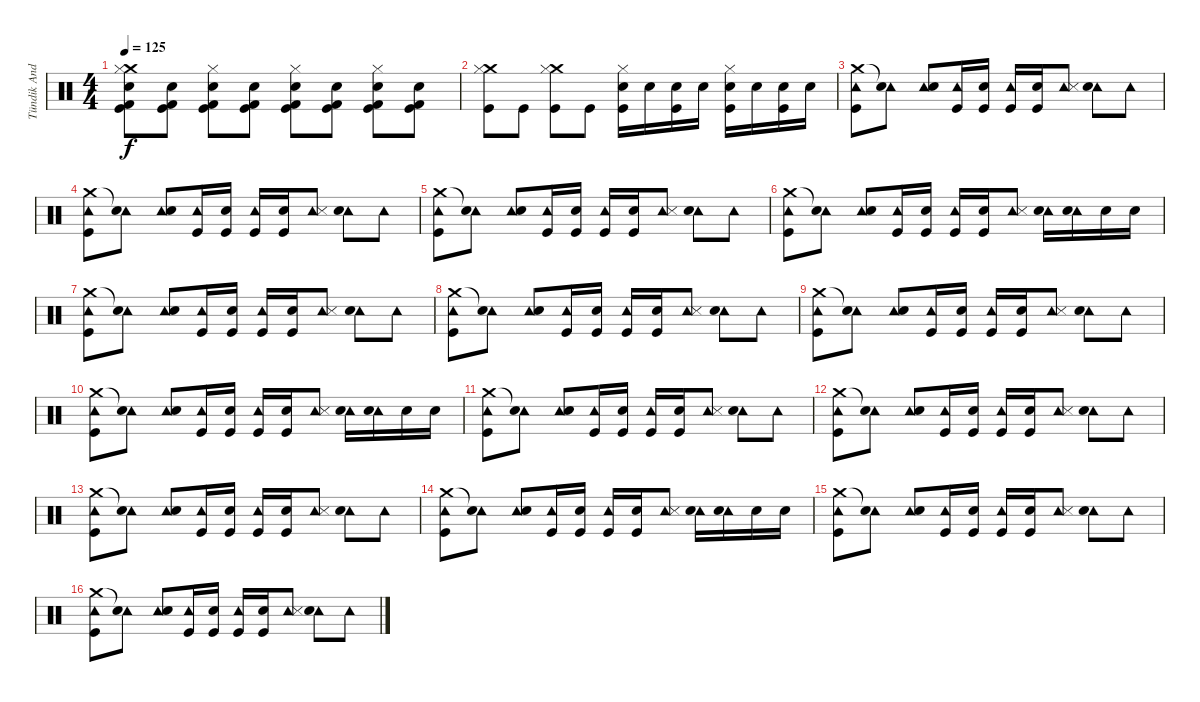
\track ("Tündik András - Dob" "Tündik And") {instrument percussion}
\staff {score}
\articulation defaults
\ts (4 4)
\tempo 125
\clef neutral
\ks c
("Crash medium (hit)" "Hi-Hat (closed)" "Snare (hit) 2" "Kick (hit) 2" "Kick (hit)").8{dy f} ("Snare (hit) 2" "Kick (hit) 2" "Kick (hit)").8 ("Hi-Hat (closed)" "Snare (hit) 2" "Kick (hit) 2" "Kick (hit)").8 ("Snare (hit) 2" "Kick (hit) 2" "Kick (hit)").8 ("Hi-Hat (closed)" "Snare (hit) 2" "Kick (hit) 2" "Kick (hit)").8 ("Snare (hit) 2" "Kick (hit) 2" "Kick (hit)").8 ("Hi-Hat (closed)" "Snare (hit) 2" "Kick (hit) 2" "Kick (hit)").8 ("Snare (hit) 2" "Kick (hit) 2" "Kick (hit)").8 |
("Crash medium (hit)" "Hi-Hat (closed)" "Kick (hit)").8 "Kick (hit)".8 ("Crash medium (hit)" "Hi-Hat (closed)" "Kick (hit)").8 "Kick (hit)".8 ("Hi-Hat (closed)" "Snare (hit) 2" "Kick (hit)").16 "Snare (hit) 2".16 ("Snare (hit) 2" "Kick (hit)").16 "Snare (hit) 2".16 ("Hi-Hat (closed)" "Snare (hit) 2" "Kick (hit)").16 "Snare (hit) 2".16 ("Snare (hit) 2" "Kick (hit)").16 "Snare (hit) 2".16 |
("Tambourine (hit)" "Crash medium (hit)" "Kick (hit)").8 ("Tambourine (hit)" "Snare (hit)"{t}).8 ("Tambourine (hit)" "Snare (hit) 2").8 ("Tambourine (hit)" "Kick (hit)").16 ("Snare (hit) 2" "Kick (hit)").16 ("Tambourine (hit)" "Kick (hit)").16 ("Snare (hit) 2" "Kick (hit)").16 ("Tambourine (hit)" "Snare (side stick) 3").8 ("Tambourine (hit)" "Snare (hit) 2").8 "Tambourine (hit)".8 |
("Tambourine (hit)" "Crash medium (hit)" "Kick (hit)").8 ("Tambourine (hit)" "Snare (hit)"{t}).8 ("Tambourine (hit)" "Snare (hit) 2").8 ("Tambourine (hit)" "Kick (hit)").16 ("Snare (hit) 2" "Kick (hit)").16 ("Tambourine (hit)" "Kick (hit)").16 ("Snare (hit) 2" "Kick (hit)").16 ("Tambourine (hit)" "Snare (side stick) 3").8 ("Tambourine (hit)" "Snare (hit) 2").8 "Tambourine (hit)".8 |
("Tambourine (hit)" "Crash medium (hit)" "Kick (hit)").8 ("Tambourine (hit)" "Snare (hit)"{t}).8 ("Tambourine (hit)" "Snare (hit) 2").8 ("Tambourine (hit)" "Kick (hit)").16 ("Snare (hit) 2" "Kick (hit)").16 ("Tambourine (hit)" "Kick (hit)").16 ("Snare (hit) 2" "Kick (hit)").16 ("Tambourine (hit)" "Snare (side stick) 3").8 ("Tambourine (hit)" "Snare (hit) 2").8 "Tambourine (hit)".8 |
("Tambourine (hit)" "Crash medium (hit)" "Kick (hit)").8 ("Tambourine (hit)" "Snare (hit)"{t}).8 ("Tambourine (hit)" "Snare (hit) 2").8 ("Tambourine (hit)" "Kick (hit)").16 ("Snare (hit) 2" "Kick (hit)").16 ("Tambourine (hit)" "Kick (hit)").16 ("Snare (hit) 2" "Kick (hit)").16 ("Tambourine (hit)" "Snare (side stick) 3").8 ("Tambourine (hit)" "Snare (hit) 2").16 ("Tambourine (hit)" "Snare (hit) 2").16 "Snare (hit) 2".16 "Snare (hit) 2".16 |
("Tambourine (hit)" "Crash medium (hit)" "Kick (hit)").8 ("Tambourine (hit)" "Snare (hit)"{t}).8 ("Tambourine (hit)" "Snare (hit) 2").8 ("Tambourine (hit)" "Kick (hit)").16 ("Snare (hit) 2" "Kick (hit)").16 ("Tambourine (hit)" "Kick (hit)").16 ("Snare (hit) 2" "Kick (hit)").16 ("Tambourine (hit)" "Snare (side stick) 3").8 ("Tambourine (hit)" "Snare (hit) 2").8 "Tambourine (hit)".8 |
("Tambourine (hit)" "Crash medium (hit)" "Kick (hit)").8 ("Tambourine (hit)" "Snare (hit)"{t}).8 ("Tambourine (hit)" "Snare (hit) 2").8 ("Tambourine (hit)" "Kick (hit)").16 ("Snare (hit) 2" "Kick (hit)").16 ("Tambourine (hit)" "Kick (hit)").16 ("Snare (hit) 2" "Kick (hit)").16 ("Tambourine (hit)" "Snare (side stick) 3").8 ("Tambourine (hit)" "Snare (hit) 2").8 "Tambourine (hit)".8 |
("Tambourine (hit)" "Crash medium (hit)" "Kick (hit)").8 ("Tambourine (hit)" "Snare (hit)"{t}).8 ("Tambourine (hit)" "Snare (hit) 2").8 ("Tambourine (hit)" "Kick (hit)").16 ("Snare (hit) 2" "Kick (hit)").16 ("Tambourine (hit)" "Kick (hit)").16 ("Snare (hit) 2" "Kick (hit)").16 ("Tambourine (hit)" "Snare (side stick) 3").8 ("Tambourine (hit)" "Snare (hit) 2").8 "Tambourine (hit)".8 |
("Tambourine (hit)" "Crash medium (hit)" "Kick (hit)").8 ("Tambourine (hit)" "Snare (hit)"{t}).8 ("Tambourine (hit)" "Snare (hit) 2").8 ("Tambourine (hit)" "Kick (hit)").16 ("Snare (hit) 2" "Kick (hit)").16 ("Tambourine (hit)" "Kick (hit)").16 ("Snare (hit) 2" "Kick (hit)").16 ("Tambourine (hit)" "Snare (side stick) 3").8 ("Tambourine (hit)" "Snare (hit) 2").16 ("Tambourine (hit)" "Snare (hit) 2").16 "Snare (hit) 2".16 "Snare (hit) 2".16 |
("Tambourine (hit)" "Crash medium (hit)" "Kick (hit)").8 ("Tambourine (hit)" "Snare (hit)"{t}).8 ("Tambourine (hit)" "Snare (hit) 2").8 ("Tambourine (hit)" "Kick (hit)").16 ("Snare (hit) 2" "Kick (hit)").16 ("Tambourine (hit)" "Kick (hit)").16 ("Snare (hit) 2" "Kick (hit)").16 ("Tambourine (hit)" "Snare (side stick) 3").8 ("Tambourine (hit)" "Snare (hit) 2").8 "Tambourine (hit)".8 |
("Tambourine (hit)" "Crash medium (hit)" "Kick (hit)").8 ("Tambourine (hit)" "Snare (hit)"{t}).8 ("Tambourine (hit)" "Snare (hit) 2").8 ("Tambourine (hit)" "Kick (hit)").16 ("Snare (hit) 2" "Kick (hit)").16 ("Tambourine (hit)" "Kick (hit)").16 ("Snare (hit) 2" "Kick (hit)").16 ("Tambourine (hit)" "Snare (side stick) 3").8 ("Tambourine (hit)" "Snare (hit) 2").8 "Tambourine (hit)".8 |
("Tambourine (hit)" "Crash medium (hit)" "Kick (hit)").8 ("Tambourine (hit)" "Snare (hit)"{t}).8 ("Tambourine (hit)" "Snare (hit) 2").8 ("Tambourine (hit)" "Kick (hit)").16 ("Snare (hit) 2" "Kick (hit)").16 ("Tambourine (hit)" "Kick (hit)").16 ("Snare (hit) 2" "Kick (hit)").16 ("Tambourine (hit)" "Snare (side stick) 3").8 ("Tambourine (hit)" "Snare (hit) 2").8 "Tambourine (hit)".8 |
("Tambourine (hit)" "Crash medium (hit)" "Kick (hit)").8 ("Tambourine (hit)" "Snare (hit)"{t}).8 ("Tambourine (hit)" "Snare (hit) 2").8 ("Tambourine (hit)" "Kick (hit)").16 ("Snare (hit) 2" "Kick (hit)").16 ("Tambourine (hit)" "Kick (hit)").16 ("Snare (hit) 2" "Kick (hit)").16 ("Tambourine (hit)" "Snare (side stick) 3").8 ("Tambourine (hit)" "Snare (hit) 2").16 ("Tambourine (hit)" "Snare (hit) 2").16 "Snare (hit) 2".16 "Snare (hit) 2".16 |
("Tambourine (hit)" "Crash medium (hit)" "Kick (hit)").8 ("Tambourine (hit)" "Snare (hit)"{t}).8 ("Tambourine (hit)" "Snare (hit) 2").8 ("Tambourine (hit)" "Kick (hit)").16 ("Snare (hit) 2" "Kick (hit)").16 ("Tambourine (hit)" "Kick (hit)").16 ("Snare (hit) 2" "Kick (hit)").16 ("Tambourine (hit)" "Snare (side stick) 3").8 ("Tambourine (hit)" "Snare (hit) 2").8 "Tambourine (hit)".8 |
("Tambourine (hit)" "Crash medium (hit)" "Kick (hit)").8 ("Tambourine (hit)" "Snare (hit)"{t}).8 ("Tambourine (hit)" "Snare (hit) 2").8 ("Tambourine (hit)" "Kick (hit)").16 ("Snare (hit) 2" "Kick (hit)").16 ("Tambourine (hit)" "Kick (hit)").16 ("Snare (hit) 2" "Kick (hit)").16 ("Tambourine (hit)" "Snare (side stick) 3").8 ("Tambourine (hit)" "Snare (hit) 2").8 "Tambourine (hit)".8
